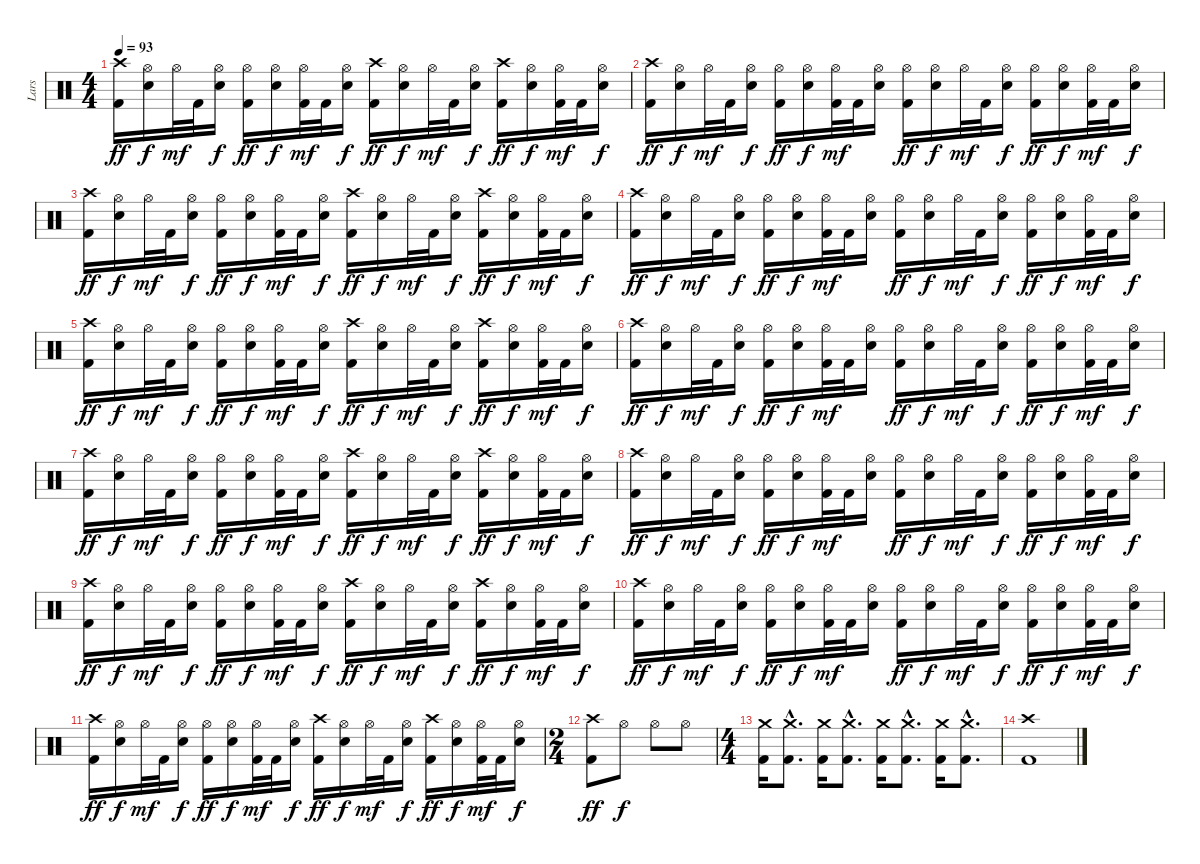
\track ("Lars" "Lars") {instrument percussion}
\staff {score}
\articulation defaults
\ts (4 4)
\tempo 93
\clef neutral
\ks c
("Crash high (hit)" "Kick (hit) 2").16{dy ff} ("Hi-Hat (open)" "Snare (hit) 2").16{dy f} "Hi-Hat (open)".32{dy mf} "Kick (hit) 2".32 ("Hi-Hat (open)" "Snare (hit) 2").16{dy f} ("Hi-Hat (open)" "Kick (hit) 2").16{dy ff} ("Hi-Hat (open)" "Snare (hit) 2").16{dy f} ("Hi-Hat (open)" "Kick (hit) 2").32{dy mf} "Kick (hit) 2".32 ("Hi-Hat (open)" "Snare (hit) 2").16{dy f} ("Crash high (hit)" "Kick (hit) 2").16{dy ff} ("Hi-Hat (open)" "Snare (hit) 2").16{dy f} "Hi-Hat (open)".32{dy mf} "Kick (hit) 2".32 ("Hi-Hat (open)" "Snare (hit) 2").16{dy f} ("Crash high (hit)" "Kick (hit) 2").16{dy ff} ("Hi-Hat (open)" "Snare (hit) 2").16{dy f} ("Hi-Hat (open)" "Kick (hit) 2").32{dy mf} "Kick (hit) 2".32 ("Hi-Hat (open)" "Snare (hit) 2").16{dy f} |
("Crash high (hit)" "Kick (hit) 2").16{dy ff} ("Hi-Hat (open)" "Snare (hit) 2").16{dy f} "Hi-Hat (open)".32{dy mf} "Kick (hit) 2".32 ("Hi-Hat (open)" "Snare (hit) 2").16{dy f} ("Hi-Hat (open)" "Kick (hit) 2").16{dy ff} ("Hi-Hat (open)" "Snare (hit) 2").16{dy f} ("Hi-Hat (open)" "Kick (hit) 2").32{dy mf} "Kick (hit) 2".32 ("Hi-Hat (open)" "Snare (hit) 2").16 ("Hi-Hat (open)" "Kick (hit) 2").16{dy ff} ("Hi-Hat (open)" "Snare (hit) 2").16{dy f} "Hi-Hat (open)".32{dy mf} "Kick (hit) 2".32 ("Hi-Hat (open)" "Snare (hit) 2").16{dy f} ("Hi-Hat (open)" "Kick (hit) 2").16{dy ff} ("Hi-Hat (open)" "Snare (hit) 2").16{dy f} ("Hi-Hat (open)" "Kick (hit) 2").32{dy mf} "Kick (hit) 2".32 ("Hi-Hat (open)" "Snare (hit) 2").16{dy f} |
("Crash high (hit)" "Kick (hit) 2").16{dy ff} ("Hi-Hat (open)" "Snare (hit) 2").16{dy f} "Hi-Hat (open)".32{dy mf} "Kick (hit) 2".32 ("Hi-Hat (open)" "Snare (hit) 2").16{dy f} ("Hi-Hat (open)" "Kick (hit) 2").16{dy ff} ("Hi-Hat (open)" "Snare (hit) 2").16{dy f} ("Hi-Hat (open)" "Kick (hit) 2").32{dy mf} "Kick (hit) 2".32 ("Hi-Hat (open)" "Snare (hit) 2").16{dy f} ("Crash high (hit)" "Kick (hit) 2").16{dy ff} ("Hi-Hat (open)" "Snare (hit) 2").16{dy f} "Hi-Hat (open)".32{dy mf} "Kick (hit) 2".32 ("Hi-Hat (open)" "Snare (hit) 2").16{dy f} ("Crash high (hit)" "Kick (hit) 2").16{dy ff} ("Hi-Hat (open)" "Snare (hit) 2").16{dy f} ("Hi-Hat (open)" "Kick (hit) 2").32{dy mf} "Kick (hit) 2".32 ("Hi-Hat (open)" "Snare (hit) 2").16{dy f} |
("Crash high (hit)" "Kick (hit) 2").16{dy ff} ("Hi-Hat (open)" "Snare (hit) 2").16{dy f} "Hi-Hat (open)".32{dy mf} "Kick (hit) 2".32 ("Hi-Hat (open)" "Snare (hit) 2").16{dy f} ("Hi-Hat (open)" "Kick (hit) 2").16{dy ff} ("Hi-Hat (open)" "Snare (hit) 2").16{dy f} ("Hi-Hat (open)" "Kick (hit) 2").32{dy mf} "Kick (hit) 2".32 ("Hi-Hat (open)" "Snare (hit) 2").16 ("Hi-Hat (open)" "Kick (hit) 2").16{dy ff} ("Hi-Hat (open)" "Snare (hit) 2").16{dy f} "Hi-Hat (open)".32{dy mf} "Kick (hit) 2".32 ("Hi-Hat (open)" "Snare (hit) 2").16{dy f} ("Hi-Hat (open)" "Kick (hit) 2").16{dy ff} ("Hi-Hat (open)" "Snare (hit) 2").16{dy f} ("Hi-Hat (open)" "Kick (hit) 2").32{dy mf} "Kick (hit) 2".32 ("Hi-Hat (open)" "Snare (hit) 2").16{dy f} |
("Crash high (hit)" "Kick (hit) 2").16{dy ff} ("Hi-Hat (open)" "Snare (hit) 2").16{dy f} "Hi-Hat (open)".32{dy mf} "Kick (hit) 2".32 ("Hi-Hat (open)" "Snare (hit) 2").16{dy f} ("Hi-Hat (open)" "Kick (hit) 2").16{dy ff} ("Hi-Hat (open)" "Snare (hit) 2").16{dy f} ("Hi-Hat (open)" "Kick (hit) 2").32{dy mf} "Kick (hit) 2".32 ("Hi-Hat (open)" "Snare (hit) 2").16{dy f} ("Crash high (hit)" "Kick (hit) 2").16{dy ff} ("Hi-Hat (open)" "Snare (hit) 2").16{dy f} "Hi-Hat (open)".32{dy mf} "Kick (hit) 2".32 ("Hi-Hat (open)" "Snare (hit) 2").16{dy f} ("Crash high (hit)" "Kick (hit) 2").16{dy ff} ("Hi-Hat (open)" "Snare (hit) 2").16{dy f} ("Hi-Hat (open)" "Kick (hit) 2").32{dy mf} "Kick (hit) 2".32 ("Hi-Hat (open)" "Snare (hit) 2").16{dy f} |
("Crash high (hit)" "Kick (hit) 2").16{dy ff} ("Hi-Hat (open)" "Snare (hit) 2").16{dy f} "Hi-Hat (open)".32{dy mf} "Kick (hit) 2".32 ("Hi-Hat (open)" "Snare (hit) 2").16{dy f} ("Hi-Hat (open)" "Kick (hit) 2").16{dy ff} ("Hi-Hat (open)" "Snare (hit) 2").16{dy f} ("Hi-Hat (open)" "Kick (hit) 2").32{dy mf} "Kick (hit) 2".32 ("Hi-Hat (open)" "Snare (hit) 2").16 ("Hi-Hat (open)" "Kick (hit) 2").16{dy ff} ("Hi-Hat (open)" "Snare (hit) 2").16{dy f} "Hi-Hat (open)".32{dy mf} "Kick (hit) 2".32 ("Hi-Hat (open)" "Snare (hit) 2").16{dy f} ("Hi-Hat (open)" "Kick (hit) 2").16{dy ff} ("Hi-Hat (open)" "Snare (hit) 2").16{dy f} ("Hi-Hat (open)" "Kick (hit) 2").32{dy mf} "Kick (hit) 2".32 ("Hi-Hat (open)" "Snare (hit) 2").16{dy f} |
("Crash high (hit)" "Kick (hit) 2").16{dy ff} ("Hi-Hat (open)" "Snare (hit) 2").16{dy f} "Hi-Hat (open)".32{dy mf} "Kick (hit) 2".32 ("Hi-Hat (open)" "Snare (hit) 2").16{dy f} ("Hi-Hat (open)" "Kick (hit) 2").16{dy ff} ("Hi-Hat (open)" "Snare (hit) 2").16{dy f} ("Hi-Hat (open)" "Kick (hit) 2").32{dy mf} "Kick (hit) 2".32 ("Hi-Hat (open)" "Snare (hit) 2").16{dy f} ("Crash high (hit)" "Kick (hit) 2").16{dy ff} ("Hi-Hat (open)" "Snare (hit) 2").16{dy f} "Hi-Hat (open)".32{dy mf} "Kick (hit) 2".32 ("Hi-Hat (open)" "Snare (hit) 2").16{dy f} ("Crash high (hit)" "Kick (hit) 2").16{dy ff} ("Hi-Hat (open)" "Snare (hit) 2").16{dy f} ("Hi-Hat (open)" "Kick (hit) 2").32{dy mf} "Kick (hit) 2".32 ("Hi-Hat (open)" "Snare (hit) 2").16{dy f} |
("Crash high (hit)" "Kick (hit) 2").16{dy ff} ("Hi-Hat (open)" "Snare (hit) 2").16{dy f} "Hi-Hat (open)".32{dy mf} "Kick (hit) 2".32 ("Hi-Hat (open)" "Snare (hit) 2").16{dy f} ("Hi-Hat (open)" "Kick (hit) 2").16{dy ff} ("Hi-Hat (open)" "Snare (hit) 2").16{dy f} ("Hi-Hat (open)" "Kick (hit) 2").32{dy mf} "Kick (hit) 2".32 ("Hi-Hat (open)" "Snare (hit) 2").16 ("Hi-Hat (open)" "Kick (hit) 2").16{dy ff} ("Hi-Hat (open)" "Snare (hit) 2").16{dy f} "Hi-Hat (open)".32{dy mf} "Kick (hit) 2".32 ("Hi-Hat (open)" "Snare (hit) 2").16{dy f} ("Hi-Hat (open)" "Kick (hit) 2").16{dy ff} ("Hi-Hat (open)" "Snare (hit) 2").16{dy f} ("Hi-Hat (open)" "Kick (hit) 2").32{dy mf} "Kick (hit) 2".32 ("Hi-Hat (open)" "Snare (hit) 2").16{dy f} |
("Crash high (hit)" "Kick (hit) 2").16{dy ff} ("Hi-Hat (open)" "Snare (hit) 2").16{dy f} "Hi-Hat (open)".32{dy mf} "Kick (hit) 2".32 ("Hi-Hat (open)" "Snare (hit) 2").16{dy f} ("Hi-Hat (open)" "Kick (hit) 2").16{dy ff} ("Hi-Hat (open)" "Snare (hit) 2").16{dy f} ("Hi-Hat (open)" "Kick (hit) 2").32{dy mf} "Kick (hit) 2".32 ("Hi-Hat (open)" "Snare (hit) 2").16{dy f} ("Crash high (hit)" "Kick (hit) 2").16{dy ff} ("Hi-Hat (open)" "Snare (hit) 2").16{dy f} "Hi-Hat (open)".32{dy mf} "Kick (hit) 2".32 ("Hi-Hat (open)" "Snare (hit) 2").16{dy f} ("Crash high (hit)" "Kick (hit) 2").16{dy ff} ("Hi-Hat (open)" "Snare (hit) 2").16{dy f} ("Hi-Hat (open)" "Kick (hit) 2").32{dy mf} "Kick (hit) 2".32 ("Hi-Hat (open)" "Snare (hit) 2").16{dy f} |
("Crash high (hit)" "Kick (hit) 2").16{dy ff} ("Hi-Hat (open)" "Snare (hit) 2").16{dy f} "Hi-Hat (open)".32{dy mf} "Kick (hit) 2".32 ("Hi-Hat (open)" "Snare (hit) 2").16{dy f} ("Hi-Hat (open)" "Kick (hit) 2").16{dy ff} ("Hi-Hat (open)" "Snare (hit) 2").16{dy f} ("Hi-Hat (open)" "Kick (hit) 2").32{dy mf} "Kick (hit) 2".32 ("Hi-Hat (open)" "Snare (hit) 2").16 ("Hi-Hat (open)" "Kick (hit) 2").16{dy ff} ("Hi-Hat (open)" "Snare (hit) 2").16{dy f} "Hi-Hat (open)".32{dy mf} "Kick (hit) 2".32 ("Hi-Hat (open)" "Snare (hit) 2").16{dy f} ("Hi-Hat (open)" "Kick (hit) 2").16{dy ff} ("Hi-Hat (open)" "Snare (hit) 2").16{dy f} ("Hi-Hat (open)" "Kick (hit) 2").32{dy mf} "Kick (hit) 2".32 ("Hi-Hat (open)" "Snare (hit) 2").16{dy f} |
("Crash high (hit)" "Kick (hit) 2").16{dy ff} ("Hi-Hat (open)" "Snare (hit) 2").16{dy f} "Hi-Hat (open)".32{dy mf} "Kick (hit) 2".32 ("Hi-Hat (open)" "Snare (hit) 2").16{dy f} ("Hi-Hat (open)" "Kick (hit) 2").16{dy ff} ("Hi-Hat (open)" "Snare (hit) 2").16{dy f} ("Hi-Hat (open)" "Kick (hit) 2").32{dy mf} "Kick (hit) 2".32 ("Hi-Hat (open)" "Snare (hit) 2").16{dy f} ("Crash high (hit)" "Kick (hit) 2").16{dy ff} ("Hi-Hat (open)" "Snare (hit) 2").16{dy f} "Hi-Hat (open)".32{dy mf} "Kick (hit) 2".32 ("Hi-Hat (open)" "Snare (hit) 2").16{dy f} ("Crash high (hit)" "Kick (hit) 2").16{dy ff} ("Hi-Hat (open)" "Snare (hit) 2").16{dy f} ("Hi-Hat (open)" "Kick (hit) 2").32{dy mf} "Kick (hit) 2".32 ("Hi-Hat (open)" "Snare (hit) 2").16{dy f} |
\ts (2 4)
("Crash high (hit)" "Kick (hit) 2").8{dy ff} "Hi-Hat (open)".8{dy f} "Hi-Hat (open)".8 "Hi-Hat (open)".8 |
\ts (4 4)
("Crash medium (hit)" "Kick (hit) 2").16 ("Crash medium (hit)"{hac} "Kick (hit) 2"{hac}).8{d} ("Crash medium (hit)" "Kick (hit) 2").16 ("Crash medium (hit)"{hac} "Kick (hit) 2"{hac}).8{d} ("Crash medium (hit)" "Kick (hit) 2").16 ("Crash medium (hit)"{hac} "Kick (hit) 2"{hac}).8{d} ("Crash medium (hit)" "Kick (hit) 2").16 ("Crash medium (hit)"{hac} "Kick (hit) 2"{hac}).8{d} |
("Crash high (hit)" "Kick (hit) 2").1
